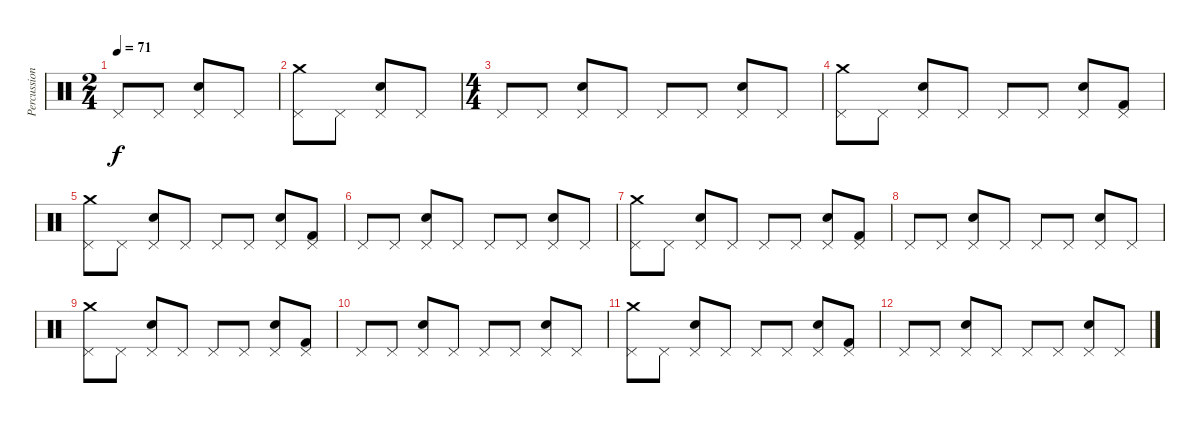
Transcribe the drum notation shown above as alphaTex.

\track ("Percussion" "Percussion") {instrument percussion}
\staff {score}
\articulation defaults
\ts (2 4)
\tempo 71
\clef neutral
\ks c "Pedal Hi-Hat (hit)".8{dy f} "Pedal Hi-Hat (hit)".8
("Pedal Hi-Hat (hit)" "Electric Snare (hit)").8 "Pedal Hi-Hat (hit)".8 |
("Pedal Hi-Hat (hit)" "Crash medium (hit)").8{volume 14} "Pedal Hi-Hat (hit)".8 ("Pedal Hi-Hat (hit)" "Electric Snare (hit)").8 "Pedal Hi-Hat (hit)".8 |
\ts (4 4)
"Pedal Hi-Hat (hit)".8{volume 13} "Pedal Hi-Hat (hit)".8 ("Pedal Hi-Hat (hit)" "Electric Snare (hit)").8 "Pedal Hi-Hat (hit)".8 "Pedal Hi-Hat (hit)".8 "Pedal Hi-Hat (hit)".8 ("Pedal Hi-Hat (hit)" "Electric Snare (hit)").8 "Pedal Hi-Hat (hit)".8 |
("Pedal Hi-Hat (hit)" "Crash medium (hit)").8{volume 11} "Pedal Hi-Hat (hit)".8 ("Pedal Hi-Hat (hit)" "Electric Snare (hit)").8 "Pedal Hi-Hat (hit)".8 "Pedal Hi-Hat (hit)".8 "Pedal Hi-Hat (hit)".8 ("Pedal Hi-Hat (hit)" "Electric Snare (hit)").8 ("Pedal Hi-Hat (hit)" "Kick (hit) 2").8 |
("Pedal Hi-Hat (hit)" "Crash medium (hit)").8{volume 10} "Pedal Hi-Hat (hit)".8 ("Pedal Hi-Hat (hit)" "Electric Snare (hit)").8 "Pedal Hi-Hat (hit)".8 "Pedal Hi-Hat (hit)".8 "Pedal Hi-Hat (hit)".8 ("Pedal Hi-Hat (hit)" "Electric Snare (hit)").8 ("Pedal Hi-Hat (hit)" "Kick (hit) 2").8 |
"Pedal Hi-Hat (hit)".8{volume 9} "Pedal Hi-Hat (hit)".8 ("Pedal Hi-Hat (hit)" "Electric Snare (hit)").8 "Pedal Hi-Hat (hit)".8 "Pedal Hi-Hat (hit)".8 "Pedal Hi-Hat (hit)".8 ("Pedal Hi-Hat (hit)" "Electric Snare (hit)").8 "Pedal Hi-Hat (hit)".8 |
("Pedal Hi-Hat (hit)" "Crash medium (hit)").8{volume 8} "Pedal Hi-Hat (hit)".8 ("Pedal Hi-Hat (hit)" "Electric Snare (hit)").8 "Pedal Hi-Hat (hit)".8 "Pedal Hi-Hat (hit)".8 "Pedal Hi-Hat (hit)".8 ("Pedal Hi-Hat (hit)" "Electric Snare (hit)").8 ("Pedal Hi-Hat (hit)" "Kick (hit) 2").8 |
"Pedal Hi-Hat (hit)".8{volume 6} "Pedal Hi-Hat (hit)".8 ("Pedal Hi-Hat (hit)" "Electric Snare (hit)").8 "Pedal Hi-Hat (hit)".8 "Pedal Hi-Hat (hit)".8 "Pedal Hi-Hat (hit)".8 ("Pedal Hi-Hat (hit)" "Electric Snare (hit)").8 "Pedal Hi-Hat (hit)".8 |
("Pedal Hi-Hat (hit)" "Crash medium (hit)").8{volume 4} "Pedal Hi-Hat (hit)".8 ("Pedal Hi-Hat (hit)" "Electric Snare (hit)").8 "Pedal Hi-Hat (hit)".8 "Pedal Hi-Hat (hit)".8 "Pedal Hi-Hat (hit)".8 ("Pedal Hi-Hat (hit)" "Electric Snare (hit)").8 ("Pedal Hi-Hat (hit)" "Kick (hit) 2").8 |
"Pedal Hi-Hat (hit)".8{volume 3} "Pedal Hi-Hat (hit)".8 ("Pedal Hi-Hat (hit)" "Electric Snare (hit)").8 "Pedal Hi-Hat (hit)".8 "Pedal Hi-Hat (hit)".8 "Pedal Hi-Hat (hit)".8 ("Pedal Hi-Hat (hit)" "Electric Snare (hit)").8 "Pedal Hi-Hat (hit)".8 |
("Pedal Hi-Hat (hit)" "Crash medium (hit)").8{volume 2} "Pedal Hi-Hat (hit)".8 ("Pedal Hi-Hat (hit)" "Electric Snare (hit)").8 "Pedal Hi-Hat (hit)".8 "Pedal Hi-Hat (hit)".8 "Pedal Hi-Hat (hit)".8 ("Pedal Hi-Hat (hit)" "Electric Snare (hit)").8 ("Pedal Hi-Hat (hit)" "Kick (hit) 2").8 |
"Pedal Hi-Hat (hit)".8{volume 1} "Pedal Hi-Hat (hit)".8 ("Pedal Hi-Hat (hit)" "Electric Snare (hit)").8 "Pedal Hi-Hat (hit)".8 "Pedal Hi-Hat (hit)".8 "Pedal Hi-Hat (hit)".8 ("Pedal Hi-Hat (hit)" "Electric Snare (hit)").8 "Pedal Hi-Hat (hit)".8
